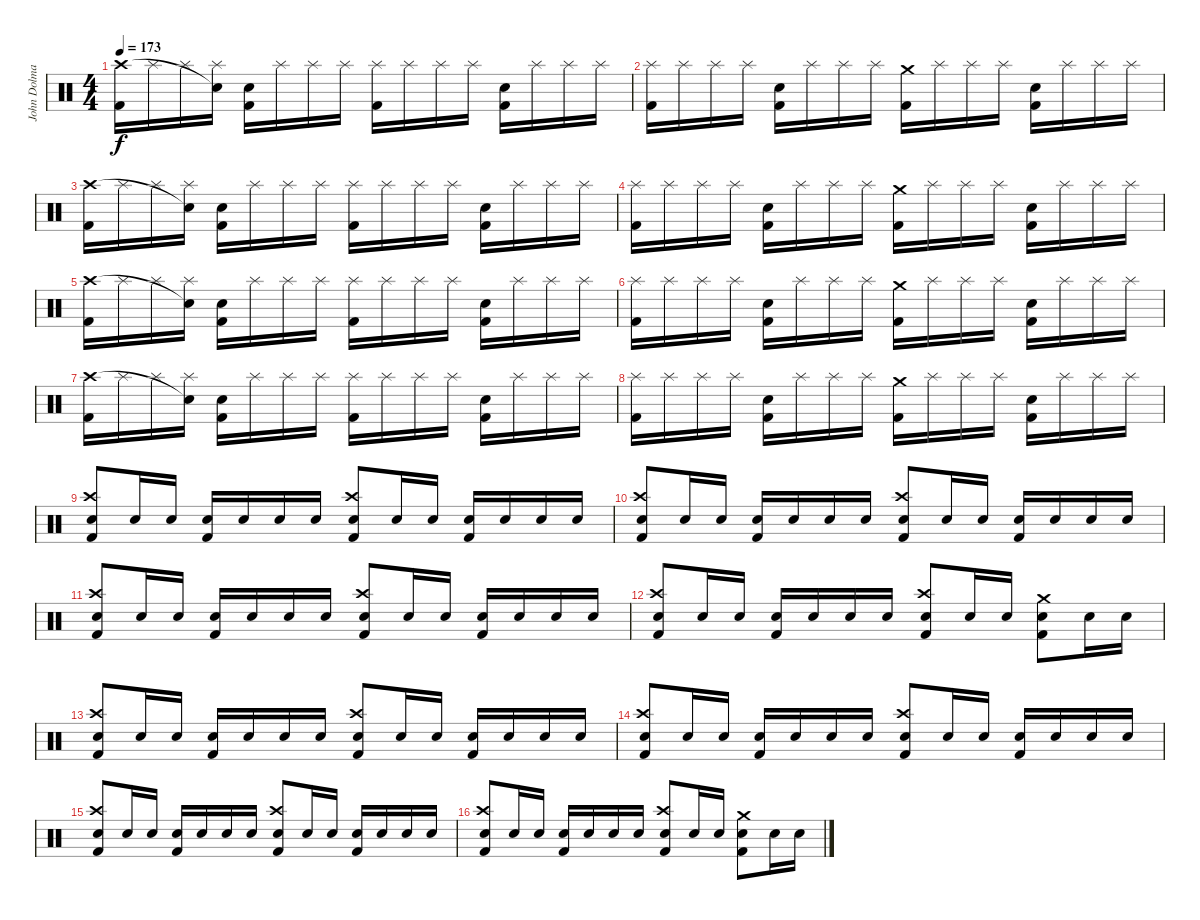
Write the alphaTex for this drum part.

\track ("John Dolmayan" "John Dolma") {instrument percussion}
\staff {score}
\articulation defaults
\ts (4 4)
\tempo 173
\clef neutral
\ks c
("Kick (hit) 2" "Crash high (hit)").16{dy f} "Splash (hit)".16 "Splash (hit)".16 ("Splash (hit)" "Snare (hit)"{t}).16 ("Electric Snare (hit)" "Kick (hit) 2").16 "Splash (hit)".16 "Splash (hit)".16 "Splash (hit)".16 ("Kick (hit) 2" "Splash (hit)").16 "Splash (hit)".16 "Splash (hit)".16 "Splash (hit)".16 ("Electric Snare (hit)" "Kick (hit) 2").16 "Splash (hit)".16 "Splash (hit)".16 "Splash (hit)".16 |
("Kick (hit) 2" "Splash (hit)").16 "Splash (hit)".16 "Splash (hit)".16 "Splash (hit)".16 ("Electric Snare (hit)" "Kick (hit) 2").16 "Splash (hit)".16 "Splash (hit)".16 "Splash (hit)".16 ("Kick (hit) 2" "Crash medium (hit)").16 "Splash (hit)".16 "Splash (hit)".16 "Splash (hit)".16 ("Electric Snare (hit)" "Kick (hit) 2").16 "Splash (hit)".16 "Splash (hit)".16 "Splash (hit)".16 |
("Kick (hit) 2" "Crash high (hit)").16 "Splash (hit)".16 "Splash (hit)".16 ("Splash (hit)" "Snare (hit)"{t}).16 ("Electric Snare (hit)" "Kick (hit) 2").16 "Splash (hit)".16 "Splash (hit)".16 "Splash (hit)".16 ("Kick (hit) 2" "Splash (hit)").16 "Splash (hit)".16 "Splash (hit)".16 "Splash (hit)".16 ("Electric Snare (hit)" "Kick (hit) 2").16 "Splash (hit)".16 "Splash (hit)".16 "Splash (hit)".16 |
("Kick (hit) 2" "Splash (hit)").16 "Splash (hit)".16 "Splash (hit)".16 "Splash (hit)".16 ("Electric Snare (hit)" "Kick (hit) 2").16 "Splash (hit)".16 "Splash (hit)".16 "Splash (hit)".16 ("Kick (hit) 2" "Crash medium (hit)").16 "Splash (hit)".16 "Splash (hit)".16 "Splash (hit)".16 ("Electric Snare (hit)" "Kick (hit) 2").16 "Splash (hit)".16 "Splash (hit)".16 "Splash (hit)".16 |
("Kick (hit) 2" "Crash high (hit)").16 "Splash (hit)".16 "Splash (hit)".16 ("Splash (hit)" "Snare (hit)"{t}).16 ("Electric Snare (hit)" "Kick (hit) 2").16 "Splash (hit)".16 "Splash (hit)".16 "Splash (hit)".16 ("Kick (hit) 2" "Splash (hit)").16 "Splash (hit)".16 "Splash (hit)".16 "Splash (hit)".16 ("Electric Snare (hit)" "Kick (hit) 2").16 "Splash (hit)".16 "Splash (hit)".16 "Splash (hit)".16 |
("Kick (hit) 2" "Splash (hit)").16 "Splash (hit)".16 "Splash (hit)".16 "Splash (hit)".16 ("Electric Snare (hit)" "Kick (hit) 2").16 "Splash (hit)".16 "Splash (hit)".16 "Splash (hit)".16 ("Kick (hit) 2" "Crash medium (hit)").16 "Splash (hit)".16 "Splash (hit)".16 "Splash (hit)".16 ("Electric Snare (hit)" "Kick (hit) 2").16 "Splash (hit)".16 "Splash (hit)".16 "Splash (hit)".16 |
("Kick (hit) 2" "Crash high (hit)").16 "Splash (hit)".16 "Splash (hit)".16 ("Splash (hit)" "Snare (hit)"{t}).16 ("Electric Snare (hit)" "Kick (hit) 2").16 "Splash (hit)".16 "Splash (hit)".16 "Splash (hit)".16 ("Kick (hit) 2" "Splash (hit)").16 "Splash (hit)".16 "Splash (hit)".16 "Splash (hit)".16 ("Electric Snare (hit)" "Kick (hit) 2").16 "Splash (hit)".16 "Splash (hit)".16 "Splash (hit)".16 |
("Kick (hit) 2" "Splash (hit)").16 "Splash (hit)".16 "Splash (hit)".16 "Splash (hit)".16 ("Electric Snare (hit)" "Kick (hit) 2").16 "Splash (hit)".16 "Splash (hit)".16 "Splash (hit)".16 ("Kick (hit) 2" "Crash medium (hit)").16 "Splash (hit)".16 "Splash (hit)".16 "Splash (hit)".16 ("Electric Snare (hit)" "Kick (hit) 2").16 "Splash (hit)".16 "Splash (hit)".16 "Splash (hit)".16 |
("Kick (hit) 2" "Electric Snare (hit)" "Crash high (hit)").8 "Electric Snare (hit)".16 "Electric Snare (hit)".16 ("Kick (hit) 2" "Electric Snare (hit)").16 "Electric Snare (hit)".16 "Electric Snare (hit)".16 "Electric Snare (hit)".16 ("Kick (hit) 2" "Electric Snare (hit)" "Crash high (hit)").8 "Electric Snare (hit)".16 "Electric Snare (hit)".16 ("Kick (hit) 2" "Electric Snare (hit)").16 "Electric Snare (hit)".16 "Electric Snare (hit)".16 "Electric Snare (hit)".16 |
("Kick (hit) 2" "Electric Snare (hit)" "Crash high (hit)").8 "Electric Snare (hit)".16 "Electric Snare (hit)".16 ("Kick (hit) 2" "Electric Snare (hit)").16 "Electric Snare (hit)".16 "Electric Snare (hit)".16 "Electric Snare (hit)".16 ("Kick (hit) 2" "Electric Snare (hit)" "Crash high (hit)").8 "Electric Snare (hit)".16 "Electric Snare (hit)".16 ("Kick (hit) 2" "Electric Snare (hit)").16 "Electric Snare (hit)".16 "Electric Snare (hit)".16 "Electric Snare (hit)".16 |
("Kick (hit) 2" "Electric Snare (hit)" "Crash high (hit)").8 "Electric Snare (hit)".16 "Electric Snare (hit)".16 ("Kick (hit) 2" "Electric Snare (hit)").16 "Electric Snare (hit)".16 "Electric Snare (hit)".16 "Electric Snare (hit)".16 ("Kick (hit) 2" "Electric Snare (hit)" "Crash high (hit)").8 "Electric Snare (hit)".16 "Electric Snare (hit)".16 ("Kick (hit) 2" "Electric Snare (hit)").16 "Electric Snare (hit)".16 "Electric Snare (hit)".16 "Electric Snare (hit)".16 |
("Kick (hit) 2" "Electric Snare (hit)" "Crash high (hit)").8 "Electric Snare (hit)".16 "Electric Snare (hit)".16 ("Kick (hit) 2" "Electric Snare (hit)").16 "Electric Snare (hit)".16 "Electric Snare (hit)".16 "Electric Snare (hit)".16 ("Kick (hit) 2" "Electric Snare (hit)" "Crash high (hit)").8 "Electric Snare (hit)".16 "Electric Snare (hit)".16 ("Kick (hit) 2" "Electric Snare (hit)" "Crash medium (hit)").8 "Electric Snare (hit)".16 "Electric Snare (hit)".16 |
("Kick (hit) 2" "Electric Snare (hit)" "Crash high (hit)").8 "Electric Snare (hit)".16 "Electric Snare (hit)".16 ("Kick (hit) 2" "Electric Snare (hit)").16 "Electric Snare (hit)".16 "Electric Snare (hit)".16 "Electric Snare (hit)".16 ("Kick (hit) 2" "Electric Snare (hit)" "Crash high (hit)").8 "Electric Snare (hit)".16 "Electric Snare (hit)".16 ("Kick (hit) 2" "Electric Snare (hit)").16 "Electric Snare (hit)".16 "Electric Snare (hit)".16 "Electric Snare (hit)".16 |
("Kick (hit) 2" "Electric Snare (hit)" "Crash high (hit)").8 "Electric Snare (hit)".16 "Electric Snare (hit)".16 ("Kick (hit) 2" "Electric Snare (hit)").16 "Electric Snare (hit)".16 "Electric Snare (hit)".16 "Electric Snare (hit)".16 ("Kick (hit) 2" "Electric Snare (hit)" "Crash high (hit)").8 "Electric Snare (hit)".16 "Electric Snare (hit)".16 ("Kick (hit) 2" "Electric Snare (hit)").16 "Electric Snare (hit)".16 "Electric Snare (hit)".16 "Electric Snare (hit)".16 |
("Kick (hit) 2" "Electric Snare (hit)" "Crash high (hit)").8 "Electric Snare (hit)".16 "Electric Snare (hit)".16 ("Kick (hit) 2" "Electric Snare (hit)").16 "Electric Snare (hit)".16 "Electric Snare (hit)".16 "Electric Snare (hit)".16 ("Kick (hit) 2" "Electric Snare (hit)" "Crash high (hit)").8 "Electric Snare (hit)".16 "Electric Snare (hit)".16 ("Kick (hit) 2" "Electric Snare (hit)").16 "Electric Snare (hit)".16 "Electric Snare (hit)".16 "Electric Snare (hit)".16 |
("Kick (hit) 2" "Electric Snare (hit)" "Crash high (hit)").8 "Electric Snare (hit)".16 "Electric Snare (hit)".16 ("Kick (hit) 2" "Electric Snare (hit)").16 "Electric Snare (hit)".16 "Electric Snare (hit)".16 "Electric Snare (hit)".16 ("Kick (hit) 2" "Electric Snare (hit)" "Crash high (hit)").8 "Electric Snare (hit)".16 "Electric Snare (hit)".16 ("Kick (hit) 2" "Electric Snare (hit)" "Crash medium (hit)").8 "Electric Snare (hit)".16 "Electric Snare (hit)".16
